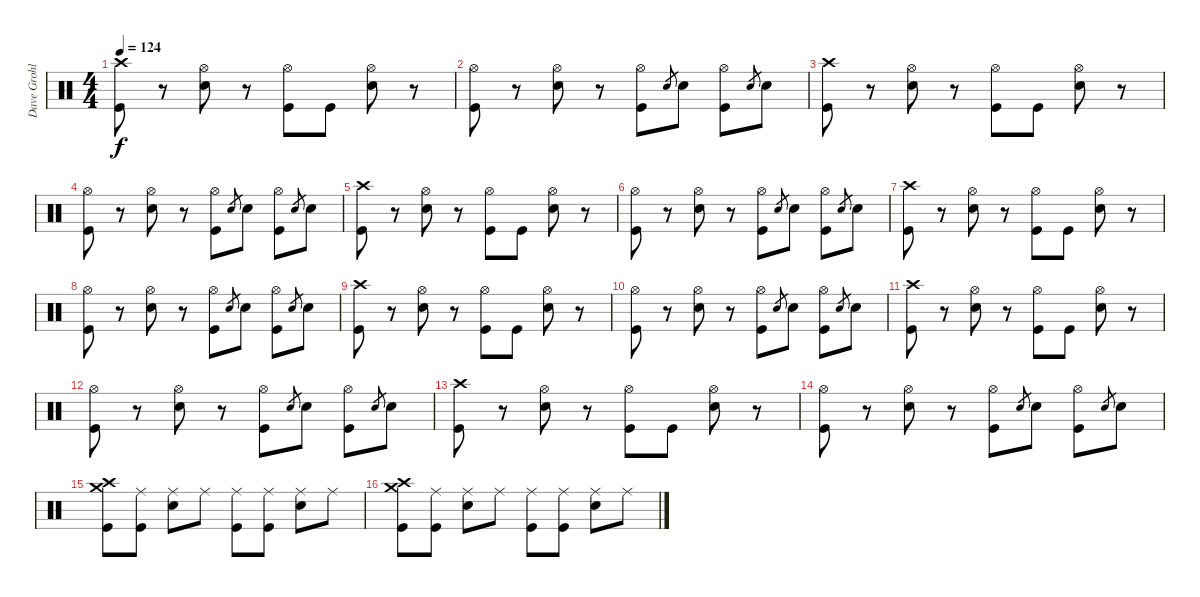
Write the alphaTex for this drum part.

\track ("Dave Grohl" "Dave Grohl") {instrument percussion}
\staff {score}
\articulation defaults
\ts (4 4)
\tempo 124
\clef neutral
\ks c
("Crash high (hit)" "Kick (hit)").8{dy f} r.8 ("Hi-Hat (open)" "Snare (hit) 2").8 r.8 ("Hi-Hat (open)" "Kick (hit)").8 "Kick (hit)".8 ("Hi-Hat (open)" "Snare (hit) 2").8 r.8 |
("Hi-Hat (open)" "Kick (hit)").8 r.8 ("Hi-Hat (open)" "Snare (hit) 2").8 r.8 ("Hi-Hat (open)" "Kick (hit)").8 "Snare (hit) 2".8{gr} "Snare (hit) 2".8 ("Hi-Hat (open)" "Kick (hit)").8 "Snare (hit) 2".8{gr} "Snare (hit) 2".8 |
("Crash high (hit)" "Kick (hit)").8 r.8 ("Hi-Hat (open)" "Snare (hit) 2").8 r.8 ("Hi-Hat (open)" "Kick (hit)").8 "Kick (hit)".8 ("Hi-Hat (open)" "Snare (hit) 2").8 r.8 |
("Hi-Hat (open)" "Kick (hit)").8 r.8 ("Hi-Hat (open)" "Snare (hit) 2").8 r.8 ("Hi-Hat (open)" "Kick (hit)").8 "Snare (hit) 2".8{gr} "Snare (hit) 2".8 ("Hi-Hat (open)" "Kick (hit)").8 "Snare (hit) 2".8{gr} "Snare (hit) 2".8 |
("Crash high (hit)" "Kick (hit)").8 r.8 ("Hi-Hat (open)" "Snare (hit) 2").8 r.8 ("Hi-Hat (open)" "Kick (hit)").8 "Kick (hit)".8 ("Hi-Hat (open)" "Snare (hit) 2").8 r.8 |
("Hi-Hat (open)" "Kick (hit)").8 r.8 ("Hi-Hat (open)" "Snare (hit) 2").8 r.8 ("Hi-Hat (open)" "Kick (hit)").8 "Snare (hit) 2".8{gr} "Snare (hit) 2".8 ("Hi-Hat (open)" "Kick (hit)").8 "Snare (hit) 2".8{gr} "Snare (hit) 2".8 |
("Crash high (hit)" "Kick (hit)").8 r.8 ("Hi-Hat (open)" "Snare (hit) 2").8 r.8 ("Hi-Hat (open)" "Kick (hit)").8 "Kick (hit)".8 ("Hi-Hat (open)" "Snare (hit) 2").8 r.8 |
("Hi-Hat (open)" "Kick (hit)").8 r.8 ("Hi-Hat (open)" "Snare (hit) 2").8 r.8 ("Hi-Hat (open)" "Kick (hit)").8 "Snare (hit) 2".8{gr} "Snare (hit) 2".8 ("Hi-Hat (open)" "Kick (hit)").8 "Snare (hit) 2".8{gr} "Snare (hit) 2".8 |
("Crash high (hit)" "Kick (hit)").8 r.8 ("Hi-Hat (open)" "Snare (hit) 2").8 r.8 ("Hi-Hat (open)" "Kick (hit)").8 "Kick (hit)".8 ("Hi-Hat (open)" "Snare (hit) 2").8 r.8 |
("Hi-Hat (open)" "Kick (hit)").8 r.8 ("Hi-Hat (open)" "Snare (hit) 2").8 r.8 ("Hi-Hat (open)" "Kick (hit)").8 "Snare (hit) 2".8{gr} "Snare (hit) 2".8 ("Hi-Hat (open)" "Kick (hit)").8 "Snare (hit) 2".8{gr} "Snare (hit) 2".8 |
("Crash high (hit)" "Kick (hit)").8 r.8 ("Hi-Hat (open)" "Snare (hit) 2").8 r.8 ("Hi-Hat (open)" "Kick (hit)").8 "Kick (hit)".8 ("Hi-Hat (open)" "Snare (hit) 2").8 r.8 |
("Hi-Hat (open)" "Kick (hit)").8 r.8 ("Hi-Hat (open)" "Snare (hit) 2").8 r.8 ("Hi-Hat (open)" "Kick (hit)").8 "Snare (hit) 2".8{gr} "Snare (hit) 2".8 ("Hi-Hat (open)" "Kick (hit)").8 "Snare (hit) 2".8{gr} "Snare (hit) 2".8 |
("Crash high (hit)" "Kick (hit)").8 r.8 ("Hi-Hat (open)" "Snare (hit) 2").8 r.8 ("Hi-Hat (open)" "Kick (hit)").8 "Kick (hit)".8 ("Hi-Hat (open)" "Snare (hit) 2").8 r.8 |
("Hi-Hat (open)" "Kick (hit)").8 r.8 ("Hi-Hat (open)" "Snare (hit) 2").8 r.8 ("Hi-Hat (open)" "Kick (hit)").8 "Snare (hit) 2".8{gr} "Snare (hit) 2".8 ("Hi-Hat (open)" "Kick (hit)").8 "Snare (hit) 2".8{gr} "Snare (hit) 2".8 |
("Crash high (hit)" "Crash medium (hit)" "Kick (hit)").8 ("Ride (middle)" "Kick (hit)").8 ("Ride (middle)" "Snare (hit) 2").8 "Ride (middle)".8 ("Ride (middle)" "Kick (hit)").8 ("Ride (middle)" "Kick (hit)").8 ("Ride (middle)" "Snare (hit) 2").8 "Ride (middle)".8 |
("Crash high (hit)" "Crash medium (hit)" "Kick (hit)").8 ("Ride (middle)" "Kick (hit)").8 ("Ride (middle)" "Snare (hit) 2").8 "Ride (middle)".8 ("Ride (middle)" "Kick (hit)").8 ("Ride (middle)" "Kick (hit)").8 ("Ride (middle)" "Snare (hit) 2").8 "Ride (middle)".8
